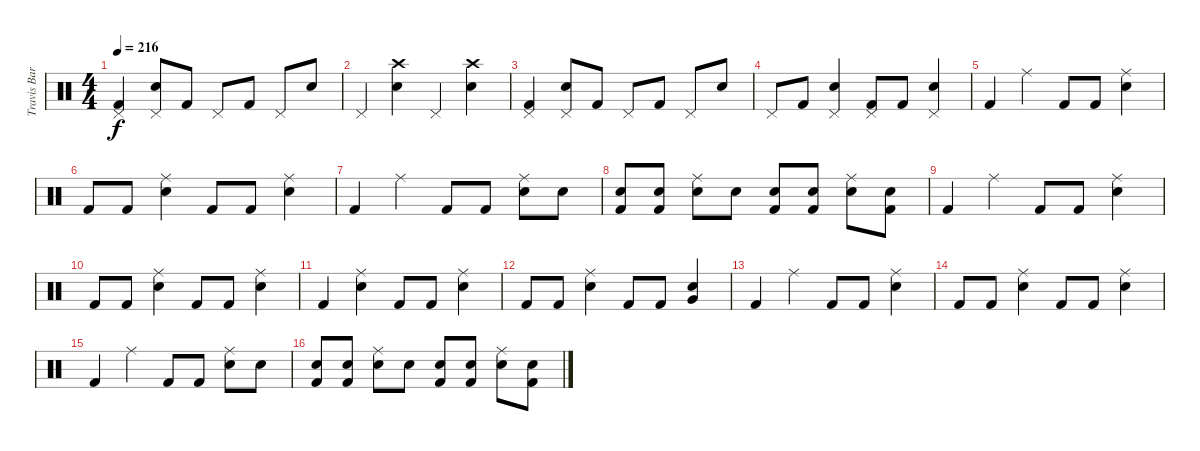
\track ("Travis Barker (Drums)" "Travis Bar") {instrument percussion}
\staff {score}
\articulation defaults
\ts (4 4)
\tempo 216
\clef neutral
\ks c
("Pedal Hi-Hat (hit)" "Kick (hit) 2").4{dy f} ("Pedal Hi-Hat (hit)" "Electric Snare (hit)").8 "Kick (hit) 2".8 "Pedal Hi-Hat (hit)".8 "Kick (hit) 2".8 "Pedal Hi-Hat (hit)".8 "Electric Snare (hit)".8 |
"Pedal Hi-Hat (hit)".4 ("Crash high (hit)" "Electric Snare (hit)").4 "Pedal Hi-Hat (hit)".4 ("Crash high (hit)" "Electric Snare (hit)").4 |
("Pedal Hi-Hat (hit)" "Kick (hit) 2").4 ("Pedal Hi-Hat (hit)" "Electric Snare (hit)").8 "Kick (hit) 2".8 "Pedal Hi-Hat (hit)".8 "Kick (hit) 2".8 "Pedal Hi-Hat (hit)".8 "Electric Snare (hit)".8 |
"Pedal Hi-Hat (hit)".8 "Kick (hit) 2".8 ("Pedal Hi-Hat (hit)" "Electric Snare (hit)").4 ("Pedal Hi-Hat (hit)" "Kick (hit) 2").8 "Kick (hit) 2".8 ("Pedal Hi-Hat (hit)" "Electric Snare (hit)").4 |
"Kick (hit) 2".4 "Ride (middle)".4 "Kick (hit) 2".8 "Kick (hit) 2".8 ("Ride (middle)" "Electric Snare (hit)").4 |
"Kick (hit) 2".8 "Kick (hit) 2".8 ("Ride (middle)" "Electric Snare (hit)").4 "Kick (hit) 2".8 "Kick (hit) 2".8 ("Ride (middle)" "Electric Snare (hit)").4 |
"Kick (hit) 2".4 "Ride (middle)".4 "Kick (hit) 2".8 "Kick (hit) 2".8 ("Ride (middle)" "Electric Snare (hit)").8 "Electric Snare (hit)".8 |
("Electric Snare (hit)" "Kick (hit) 2").8 ("Electric Snare (hit)" "Kick (hit) 2").8 ("Ride (middle)" "Electric Snare (hit)").8 "Electric Snare (hit)".8 ("Electric Snare (hit)" "Kick (hit) 2").8 ("Electric Snare (hit)" "Kick (hit) 2").8 ("Ride (middle)" "Electric Snare (hit)").8 ("Electric Snare (hit)" "Kick (hit) 2").8 |
"Kick (hit) 2".4 "Ride (middle)".4 "Kick (hit) 2".8 "Kick (hit) 2".8 ("Ride (middle)" "Electric Snare (hit)").4 |
"Kick (hit) 2".8 "Kick (hit) 2".8 ("Ride (middle)" "Electric Snare (hit)").4 "Kick (hit) 2".8 "Kick (hit) 2".8 ("Ride (middle)" "Electric Snare (hit)").4 |
"Kick (hit) 2".4 ("Ride (middle)" "Electric Snare (hit)").4 "Kick (hit) 2".8 "Kick (hit) 2".8 ("Ride (middle)" "Electric Snare (hit)").4 |
"Kick (hit) 2".8 "Kick (hit) 2".8 ("Ride (middle)" "Electric Snare (hit)").4 "Kick (hit) 2".8 "Kick (hit) 2".8 ("Very Low Tom (hit)" "Electric Snare (hit)").4 |
"Kick (hit) 2".4 "Ride (middle)".4 "Kick (hit) 2".8 "Kick (hit) 2".8 ("Ride (middle)" "Electric Snare (hit)").4 |
"Kick (hit) 2".8 "Kick (hit) 2".8 ("Ride (middle)" "Electric Snare (hit)").4 "Kick (hit) 2".8 "Kick (hit) 2".8 ("Ride (middle)" "Electric Snare (hit)").4 |
"Kick (hit) 2".4 "Ride (middle)".4 "Kick (hit) 2".8 "Kick (hit) 2".8 ("Ride (middle)" "Electric Snare (hit)").8 "Electric Snare (hit)".8 |
("Electric Snare (hit)" "Kick (hit) 2").8 ("Electric Snare (hit)" "Kick (hit) 2").8 ("Ride (middle)" "Electric Snare (hit)").8 "Electric Snare (hit)".8 ("Electric Snare (hit)" "Kick (hit) 2").8 ("Electric Snare (hit)" "Kick (hit) 2").8 ("Ride (middle)" "Electric Snare (hit)").8 ("Electric Snare (hit)" "Kick (hit) 2").8
